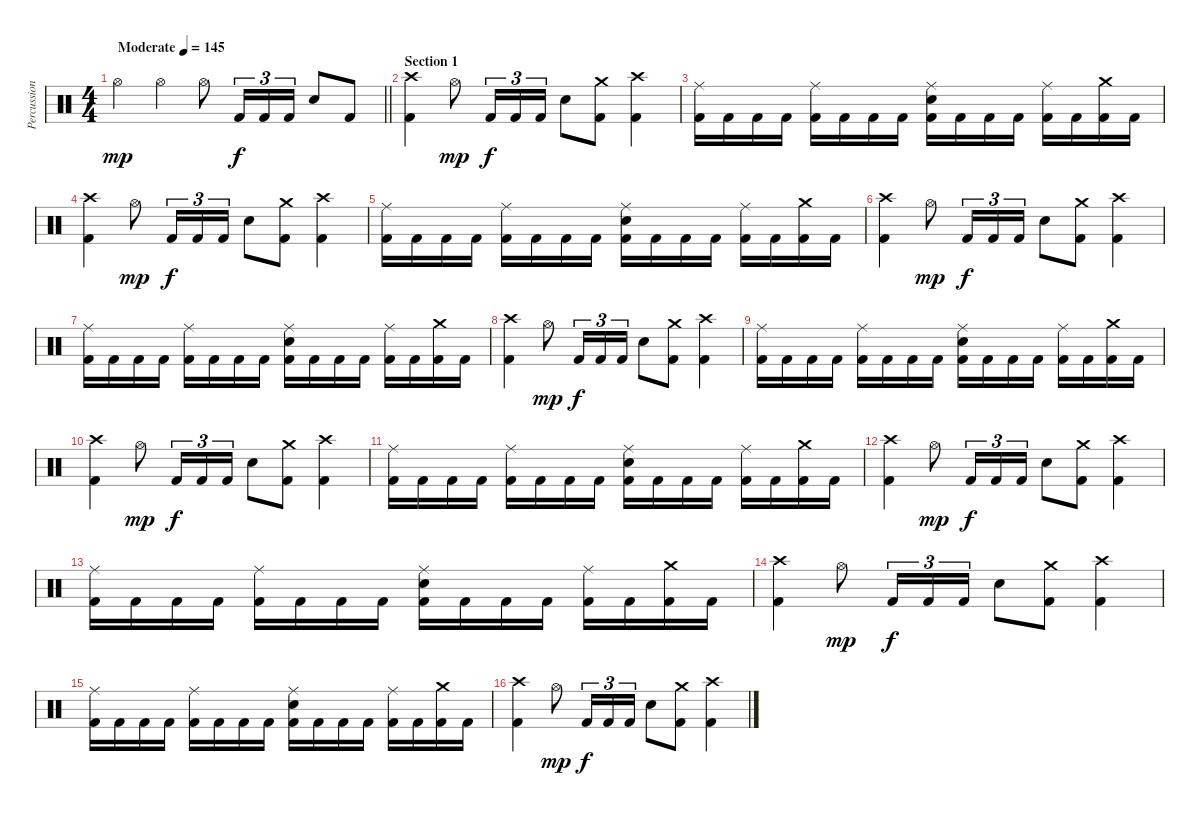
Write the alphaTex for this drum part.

\track ("Percussion" "Percussion") {instrument percussion}
\staff {score}
\articulation defaults
\ts (4 4)
\tempo (145 "Moderate")
\clef neutral
\barLineRight lightlight
\ks c "Hi-Hat (open)".4{dy mp} "Hi-Hat (open)".4 "Hi-Hat (open)".8 "Kick (hit) 2".16{tu (3 2) dy f} "Kick (hit) 2".16{tu (3 2)} "Kick (hit) 2".16{tu (3 2)} "Electric Snare (hit)".8 "Kick (hit) 2".8
|
\section ("" "Section 1")
("Crash high (hit)" "Kick (hit) 2").4 "Hi-Hat (open)".8{dy mp} "Kick (hit) 2".16{tu (3 2) dy f} "Kick (hit) 2".16{tu (3 2)} "Kick (hit) 2".16{tu (3 2)} "Electric Snare (hit)".8 ("Crash medium (hit)" "Kick (hit) 2").8 ("Crash high (hit)" "Kick (hit) 2").4 |
("Ride (middle)" "Kick (hit) 2").16 "Kick (hit) 2".16 "Kick (hit) 2".16 "Kick (hit) 2".16 ("Ride (middle)" "Kick (hit) 2").16 "Kick (hit) 2".16 "Kick (hit) 2".16 "Kick (hit) 2".16 ("Ride (middle)" "Electric Snare (hit)" "Kick (hit) 2").16 "Kick (hit) 2".16 "Kick (hit) 2".16 "Kick (hit) 2".16 ("Ride (middle)" "Kick (hit) 2").16 "Kick (hit) 2".16 ("Crash medium (hit)" "Kick (hit) 2").16 "Kick (hit) 2".16 |
("Crash high (hit)" "Kick (hit) 2").4 "Hi-Hat (open)".8{dy mp} "Kick (hit) 2".16{tu (3 2) dy f} "Kick (hit) 2".16{tu (3 2)} "Kick (hit) 2".16{tu (3 2)} "Electric Snare (hit)".8 ("Crash medium (hit)" "Kick (hit) 2").8 ("Crash high (hit)" "Kick (hit) 2").4 |
("Ride (middle)" "Kick (hit) 2").16 "Kick (hit) 2".16 "Kick (hit) 2".16 "Kick (hit) 2".16 ("Ride (middle)" "Kick (hit) 2").16 "Kick (hit) 2".16 "Kick (hit) 2".16 "Kick (hit) 2".16 ("Ride (middle)" "Electric Snare (hit)" "Kick (hit) 2").16 "Kick (hit) 2".16 "Kick (hit) 2".16 "Kick (hit) 2".16 ("Ride (middle)" "Kick (hit) 2").16 "Kick (hit) 2".16 ("Crash medium (hit)" "Kick (hit) 2").16 "Kick (hit) 2".16 |
("Crash high (hit)" "Kick (hit) 2").4 "Hi-Hat (open)".8{dy mp} "Kick (hit) 2".16{tu (3 2) dy f} "Kick (hit) 2".16{tu (3 2)} "Kick (hit) 2".16{tu (3 2)} "Electric Snare (hit)".8 ("Crash medium (hit)" "Kick (hit) 2").8 ("Crash high (hit)" "Kick (hit) 2").4 |
("Ride (middle)" "Kick (hit) 2").16 "Kick (hit) 2".16 "Kick (hit) 2".16 "Kick (hit) 2".16 ("Ride (middle)" "Kick (hit) 2").16 "Kick (hit) 2".16 "Kick (hit) 2".16 "Kick (hit) 2".16 ("Ride (middle)" "Electric Snare (hit)" "Kick (hit) 2").16 "Kick (hit) 2".16 "Kick (hit) 2".16 "Kick (hit) 2".16 ("Ride (middle)" "Kick (hit) 2").16 "Kick (hit) 2".16 ("Crash medium (hit)" "Kick (hit) 2").16 "Kick (hit) 2".16 |
("Crash high (hit)" "Kick (hit) 2").4 "Hi-Hat (open)".8{dy mp} "Kick (hit) 2".16{tu (3 2) dy f} "Kick (hit) 2".16{tu (3 2)} "Kick (hit) 2".16{tu (3 2)} "Electric Snare (hit)".8 ("Crash medium (hit)" "Kick (hit) 2").8 ("Crash high (hit)" "Kick (hit) 2").4 |
("Ride (middle)" "Kick (hit) 2").16 "Kick (hit) 2".16 "Kick (hit) 2".16 "Kick (hit) 2".16 ("Ride (middle)" "Kick (hit) 2").16 "Kick (hit) 2".16 "Kick (hit) 2".16 "Kick (hit) 2".16 ("Ride (middle)" "Electric Snare (hit)" "Kick (hit) 2").16 "Kick (hit) 2".16 "Kick (hit) 2".16 "Kick (hit) 2".16 ("Ride (middle)" "Kick (hit) 2").16 "Kick (hit) 2".16 ("Crash medium (hit)" "Kick (hit) 2").16 "Kick (hit) 2".16 |
("Crash high (hit)" "Kick (hit) 2").4 "Hi-Hat (open)".8{dy mp} "Kick (hit) 2".16{tu (3 2) dy f} "Kick (hit) 2".16{tu (3 2)} "Kick (hit) 2".16{tu (3 2)} "Electric Snare (hit)".8 ("Crash medium (hit)" "Kick (hit) 2").8 ("Crash high (hit)" "Kick (hit) 2").4 |
("Ride (middle)" "Kick (hit) 2").16 "Kick (hit) 2".16 "Kick (hit) 2".16 "Kick (hit) 2".16 ("Ride (middle)" "Kick (hit) 2").16 "Kick (hit) 2".16 "Kick (hit) 2".16 "Kick (hit) 2".16 ("Ride (middle)" "Electric Snare (hit)" "Kick (hit) 2").16 "Kick (hit) 2".16 "Kick (hit) 2".16 "Kick (hit) 2".16 ("Ride (middle)" "Kick (hit) 2").16 "Kick (hit) 2".16 ("Crash medium (hit)" "Kick (hit) 2").16 "Kick (hit) 2".16 |
("Crash high (hit)" "Kick (hit) 2").4 "Hi-Hat (open)".8{dy mp} "Kick (hit) 2".16{tu (3 2) dy f} "Kick (hit) 2".16{tu (3 2)} "Kick (hit) 2".16{tu (3 2)} "Electric Snare (hit)".8 ("Crash medium (hit)" "Kick (hit) 2").8 ("Crash high (hit)" "Kick (hit) 2").4 |
("Ride (middle)" "Kick (hit) 2").16 "Kick (hit) 2".16 "Kick (hit) 2".16 "Kick (hit) 2".16 ("Ride (middle)" "Kick (hit) 2").16 "Kick (hit) 2".16 "Kick (hit) 2".16 "Kick (hit) 2".16 ("Ride (middle)" "Electric Snare (hit)" "Kick (hit) 2").16 "Kick (hit) 2".16 "Kick (hit) 2".16 "Kick (hit) 2".16 ("Ride (middle)" "Kick (hit) 2").16 "Kick (hit) 2".16 ("Crash medium (hit)" "Kick (hit) 2").16 "Kick (hit) 2".16 |
("Crash high (hit)" "Kick (hit) 2").4 "Hi-Hat (open)".8{dy mp} "Kick (hit) 2".16{tu (3 2) dy f} "Kick (hit) 2".16{tu (3 2)} "Kick (hit) 2".16{tu (3 2)} "Electric Snare (hit)".8 ("Crash medium (hit)" "Kick (hit) 2").8 ("Crash high (hit)" "Kick (hit) 2").4 |
("Ride (middle)" "Kick (hit) 2").16 "Kick (hit) 2".16 "Kick (hit) 2".16 "Kick (hit) 2".16 ("Ride (middle)" "Kick (hit) 2").16 "Kick (hit) 2".16 "Kick (hit) 2".16 "Kick (hit) 2".16 ("Ride (middle)" "Electric Snare (hit)" "Kick (hit) 2").16 "Kick (hit) 2".16 "Kick (hit) 2".16 "Kick (hit) 2".16 ("Ride (middle)" "Kick (hit) 2").16 "Kick (hit) 2".16 ("Crash medium (hit)" "Kick (hit) 2").16 "Kick (hit) 2".16 |
("Crash high (hit)" "Kick (hit) 2").4 "Hi-Hat (open)".8{dy mp} "Kick (hit) 2".16{tu (3 2) dy f} "Kick (hit) 2".16{tu (3 2)} "Kick (hit) 2".16{tu (3 2)} "Electric Snare (hit)".8 ("Crash medium (hit)" "Kick (hit) 2").8 ("Crash high (hit)" "Kick (hit) 2").4
